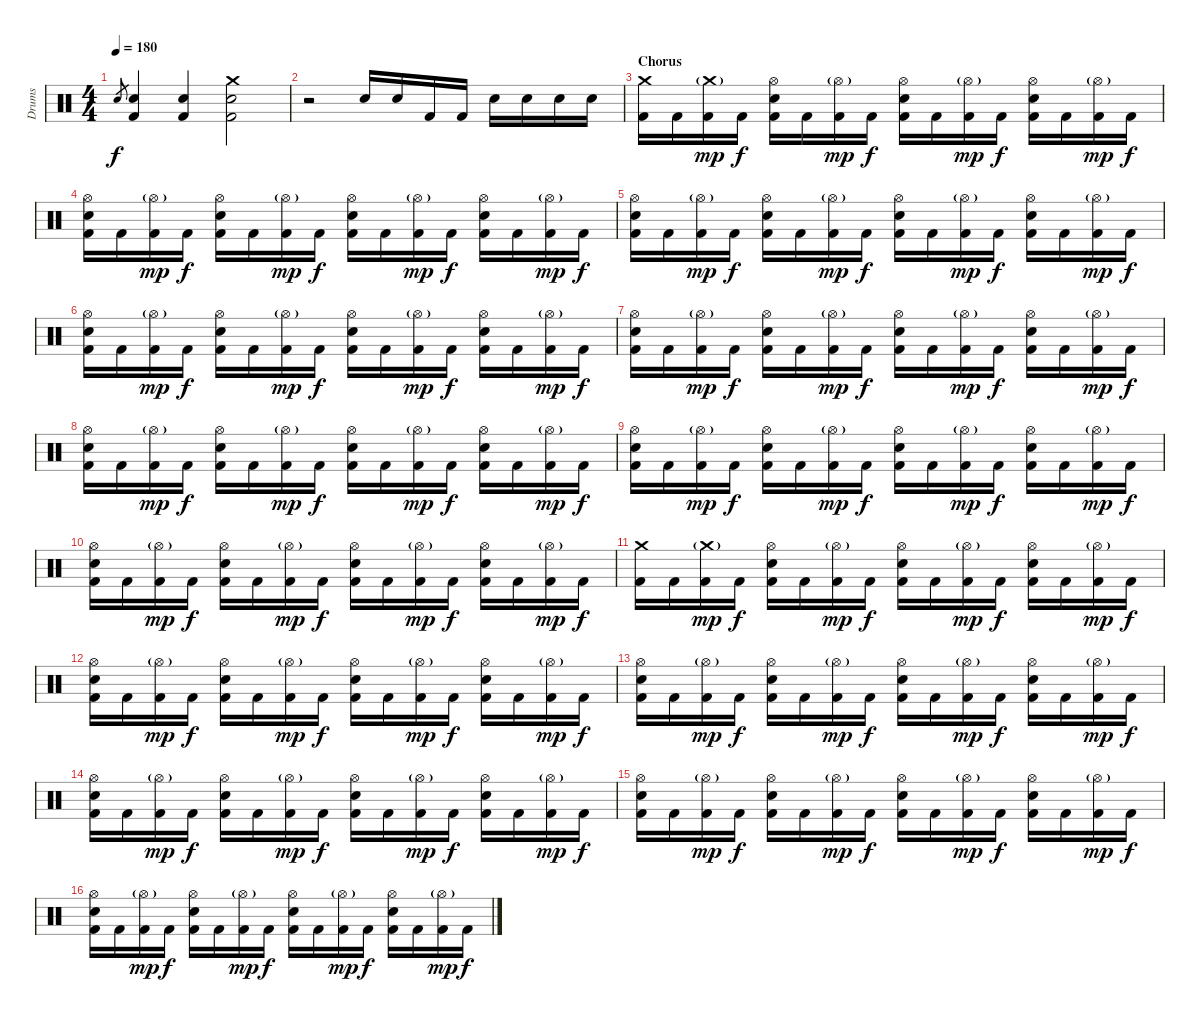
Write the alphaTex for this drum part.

\track ("Drums" "Drums") {instrument percussion}
\staff {score}
\articulation defaults
\ts (4 4)
\tempo 180
\clef neutral
\ks c "Electric Snare (hit)".8{gr dy f}
("Electric Snare (hit)" "Kick (hit) 2").4 ("Electric Snare (hit)" "Kick (hit) 2").4 ("Crash medium (hit)" "Electric Snare (hit)" "Kick (hit) 2").2 |
r.2 "Electric Snare (hit)".16 "Electric Snare (hit)".16 "Kick (hit) 2".16 "Kick (hit) 2".16 "Electric Snare (hit)".16 "Electric Snare (hit)".16 "Electric Snare (hit)".16 "Electric Snare (hit)".16 |
\section ("" "Chorus")
("Crash medium (hit)" "Kick (hit) 2").16 "Kick (hit) 2".16 ("Crash medium (hit)"{g} "Kick (hit) 2").16{dy mp} "Kick (hit) 2".16{dy f} ("Hi-Hat (open)" "Electric Snare (hit)" "Kick (hit) 2").16 "Kick (hit) 2".16 ("Hi-Hat (open)"{g} "Kick (hit) 2").16{dy mp} "Kick (hit) 2".16{dy f} ("Hi-Hat (open)" "Electric Snare (hit)" "Kick (hit) 2").16 "Kick (hit) 2".16 ("Hi-Hat (open)"{g} "Kick (hit) 2").16{dy mp} "Kick (hit) 2".16{dy f} ("Hi-Hat (open)" "Electric Snare (hit)" "Kick (hit) 2").16 "Kick (hit) 2".16 ("Hi-Hat (open)"{g} "Kick (hit) 2").16{dy mp} "Kick (hit) 2".16{dy f} |
("Hi-Hat (open)" "Electric Snare (hit)" "Kick (hit) 2").16 "Kick (hit) 2".16 ("Hi-Hat (open)"{g} "Kick (hit) 2").16{dy mp} "Kick (hit) 2".16{dy f} ("Hi-Hat (open)" "Electric Snare (hit)" "Kick (hit) 2").16 "Kick (hit) 2".16 ("Hi-Hat (open)"{g} "Kick (hit) 2").16{dy mp} "Kick (hit) 2".16{dy f} ("Hi-Hat (open)" "Electric Snare (hit)" "Kick (hit) 2").16 "Kick (hit) 2".16 ("Hi-Hat (open)"{g} "Kick (hit) 2").16{dy mp} "Kick (hit) 2".16{dy f} ("Hi-Hat (open)" "Electric Snare (hit)" "Kick (hit) 2").16 "Kick (hit) 2".16 ("Hi-Hat (open)"{g} "Kick (hit) 2").16{dy mp} "Kick (hit) 2".16{dy f} |
("Hi-Hat (open)" "Electric Snare (hit)" "Kick (hit) 2").16 "Kick (hit) 2".16 ("Hi-Hat (open)"{g} "Kick (hit) 2").16{dy mp} "Kick (hit) 2".16{dy f} ("Hi-Hat (open)" "Electric Snare (hit)" "Kick (hit) 2").16 "Kick (hit) 2".16 ("Hi-Hat (open)"{g} "Kick (hit) 2").16{dy mp} "Kick (hit) 2".16{dy f} ("Hi-Hat (open)" "Electric Snare (hit)" "Kick (hit) 2").16 "Kick (hit) 2".16 ("Hi-Hat (open)"{g} "Kick (hit) 2").16{dy mp} "Kick (hit) 2".16{dy f} ("Hi-Hat (open)" "Electric Snare (hit)" "Kick (hit) 2").16 "Kick (hit) 2".16 ("Hi-Hat (open)"{g} "Kick (hit) 2").16{dy mp} "Kick (hit) 2".16{dy f} |
("Hi-Hat (open)" "Electric Snare (hit)" "Kick (hit) 2").16 "Kick (hit) 2".16 ("Hi-Hat (open)"{g} "Kick (hit) 2").16{dy mp} "Kick (hit) 2".16{dy f} ("Hi-Hat (open)" "Electric Snare (hit)" "Kick (hit) 2").16 "Kick (hit) 2".16 ("Hi-Hat (open)"{g} "Kick (hit) 2").16{dy mp} "Kick (hit) 2".16{dy f} ("Hi-Hat (open)" "Electric Snare (hit)" "Kick (hit) 2").16 "Kick (hit) 2".16 ("Hi-Hat (open)"{g} "Kick (hit) 2").16{dy mp} "Kick (hit) 2".16{dy f} ("Hi-Hat (open)" "Electric Snare (hit)" "Kick (hit) 2").16 "Kick (hit) 2".16 ("Hi-Hat (open)"{g} "Kick (hit) 2").16{dy mp} "Kick (hit) 2".16{dy f} |
("Hi-Hat (open)" "Electric Snare (hit)" "Kick (hit) 2").16 "Kick (hit) 2".16 ("Hi-Hat (open)"{g} "Kick (hit) 2").16{dy mp} "Kick (hit) 2".16{dy f} ("Hi-Hat (open)" "Electric Snare (hit)" "Kick (hit) 2").16 "Kick (hit) 2".16 ("Hi-Hat (open)"{g} "Kick (hit) 2").16{dy mp} "Kick (hit) 2".16{dy f} ("Hi-Hat (open)" "Electric Snare (hit)" "Kick (hit) 2").16 "Kick (hit) 2".16 ("Hi-Hat (open)"{g} "Kick (hit) 2").16{dy mp} "Kick (hit) 2".16{dy f} ("Hi-Hat (open)" "Electric Snare (hit)" "Kick (hit) 2").16 "Kick (hit) 2".16 ("Hi-Hat (open)"{g} "Kick (hit) 2").16{dy mp} "Kick (hit) 2".16{dy f} |
("Hi-Hat (open)" "Electric Snare (hit)" "Kick (hit) 2").16 "Kick (hit) 2".16 ("Hi-Hat (open)"{g} "Kick (hit) 2").16{dy mp} "Kick (hit) 2".16{dy f} ("Hi-Hat (open)" "Electric Snare (hit)" "Kick (hit) 2").16 "Kick (hit) 2".16 ("Hi-Hat (open)"{g} "Kick (hit) 2").16{dy mp} "Kick (hit) 2".16{dy f} ("Hi-Hat (open)" "Electric Snare (hit)" "Kick (hit) 2").16 "Kick (hit) 2".16 ("Hi-Hat (open)"{g} "Kick (hit) 2").16{dy mp} "Kick (hit) 2".16{dy f} ("Hi-Hat (open)" "Electric Snare (hit)" "Kick (hit) 2").16 "Kick (hit) 2".16 ("Hi-Hat (open)"{g} "Kick (hit) 2").16{dy mp} "Kick (hit) 2".16{dy f} |
("Hi-Hat (open)" "Electric Snare (hit)" "Kick (hit) 2").16 "Kick (hit) 2".16 ("Hi-Hat (open)"{g} "Kick (hit) 2").16{dy mp} "Kick (hit) 2".16{dy f} ("Hi-Hat (open)" "Electric Snare (hit)" "Kick (hit) 2").16 "Kick (hit) 2".16 ("Hi-Hat (open)"{g} "Kick (hit) 2").16{dy mp} "Kick (hit) 2".16{dy f} ("Hi-Hat (open)" "Electric Snare (hit)" "Kick (hit) 2").16 "Kick (hit) 2".16 ("Hi-Hat (open)"{g} "Kick (hit) 2").16{dy mp} "Kick (hit) 2".16{dy f} ("Hi-Hat (open)" "Electric Snare (hit)" "Kick (hit) 2").16 "Kick (hit) 2".16 ("Hi-Hat (open)"{g} "Kick (hit) 2").16{dy mp} "Kick (hit) 2".16{dy f} |
("Hi-Hat (open)" "Electric Snare (hit)" "Kick (hit) 2").16 "Kick (hit) 2".16 ("Hi-Hat (open)"{g} "Kick (hit) 2").16{dy mp} "Kick (hit) 2".16{dy f} ("Hi-Hat (open)" "Electric Snare (hit)" "Kick (hit) 2").16 "Kick (hit) 2".16 ("Hi-Hat (open)"{g} "Kick (hit) 2").16{dy mp} "Kick (hit) 2".16{dy f} ("Hi-Hat (open)" "Electric Snare (hit)" "Kick (hit) 2").16 "Kick (hit) 2".16 ("Hi-Hat (open)"{g} "Kick (hit) 2").16{dy mp} "Kick (hit) 2".16{dy f} ("Hi-Hat (open)" "Electric Snare (hit)" "Kick (hit) 2").16 "Kick (hit) 2".16 ("Hi-Hat (open)"{g} "Kick (hit) 2").16{dy mp} "Kick (hit) 2".16{dy f} |
("Crash medium (hit)" "Kick (hit) 2").16 "Kick (hit) 2".16 ("Crash medium (hit)"{g} "Kick (hit) 2").16{dy mp} "Kick (hit) 2".16{dy f} ("Hi-Hat (open)" "Electric Snare (hit)" "Kick (hit) 2").16 "Kick (hit) 2".16 ("Hi-Hat (open)"{g} "Kick (hit) 2").16{dy mp} "Kick (hit) 2".16{dy f} ("Hi-Hat (open)" "Electric Snare (hit)" "Kick (hit) 2").16 "Kick (hit) 2".16 ("Hi-Hat (open)"{g} "Kick (hit) 2").16{dy mp} "Kick (hit) 2".16{dy f} ("Hi-Hat (open)" "Electric Snare (hit)" "Kick (hit) 2").16 "Kick (hit) 2".16 ("Hi-Hat (open)"{g} "Kick (hit) 2").16{dy mp} "Kick (hit) 2".16{dy f} |
("Hi-Hat (open)" "Electric Snare (hit)" "Kick (hit) 2").16 "Kick (hit) 2".16 ("Hi-Hat (open)"{g} "Kick (hit) 2").16{dy mp} "Kick (hit) 2".16{dy f} ("Hi-Hat (open)" "Electric Snare (hit)" "Kick (hit) 2").16 "Kick (hit) 2".16 ("Hi-Hat (open)"{g} "Kick (hit) 2").16{dy mp} "Kick (hit) 2".16{dy f} ("Hi-Hat (open)" "Electric Snare (hit)" "Kick (hit) 2").16 "Kick (hit) 2".16 ("Hi-Hat (open)"{g} "Kick (hit) 2").16{dy mp} "Kick (hit) 2".16{dy f} ("Hi-Hat (open)" "Electric Snare (hit)" "Kick (hit) 2").16 "Kick (hit) 2".16 ("Hi-Hat (open)"{g} "Kick (hit) 2").16{dy mp} "Kick (hit) 2".16{dy f} |
("Hi-Hat (open)" "Electric Snare (hit)" "Kick (hit) 2").16 "Kick (hit) 2".16 ("Hi-Hat (open)"{g} "Kick (hit) 2").16{dy mp} "Kick (hit) 2".16{dy f} ("Hi-Hat (open)" "Electric Snare (hit)" "Kick (hit) 2").16 "Kick (hit) 2".16 ("Hi-Hat (open)"{g} "Kick (hit) 2").16{dy mp} "Kick (hit) 2".16{dy f} ("Hi-Hat (open)" "Electric Snare (hit)" "Kick (hit) 2").16 "Kick (hit) 2".16 ("Hi-Hat (open)"{g} "Kick (hit) 2").16{dy mp} "Kick (hit) 2".16{dy f} ("Hi-Hat (open)" "Electric Snare (hit)" "Kick (hit) 2").16 "Kick (hit) 2".16 ("Hi-Hat (open)"{g} "Kick (hit) 2").16{dy mp} "Kick (hit) 2".16{dy f} |
("Hi-Hat (open)" "Electric Snare (hit)" "Kick (hit) 2").16 "Kick (hit) 2".16 ("Hi-Hat (open)"{g} "Kick (hit) 2").16{dy mp} "Kick (hit) 2".16{dy f} ("Hi-Hat (open)" "Electric Snare (hit)" "Kick (hit) 2").16 "Kick (hit) 2".16 ("Hi-Hat (open)"{g} "Kick (hit) 2").16{dy mp} "Kick (hit) 2".16{dy f} ("Hi-Hat (open)" "Electric Snare (hit)" "Kick (hit) 2").16 "Kick (hit) 2".16 ("Hi-Hat (open)"{g} "Kick (hit) 2").16{dy mp} "Kick (hit) 2".16{dy f} ("Hi-Hat (open)" "Electric Snare (hit)" "Kick (hit) 2").16 "Kick (hit) 2".16 ("Hi-Hat (open)"{g} "Kick (hit) 2").16{dy mp} "Kick (hit) 2".16{dy f} |
("Hi-Hat (open)" "Electric Snare (hit)" "Kick (hit) 2").16 "Kick (hit) 2".16 ("Hi-Hat (open)"{g} "Kick (hit) 2").16{dy mp} "Kick (hit) 2".16{dy f} ("Hi-Hat (open)" "Electric Snare (hit)" "Kick (hit) 2").16 "Kick (hit) 2".16 ("Hi-Hat (open)"{g} "Kick (hit) 2").16{dy mp} "Kick (hit) 2".16{dy f} ("Hi-Hat (open)" "Electric Snare (hit)" "Kick (hit) 2").16 "Kick (hit) 2".16 ("Hi-Hat (open)"{g} "Kick (hit) 2").16{dy mp} "Kick (hit) 2".16{dy f} ("Hi-Hat (open)" "Electric Snare (hit)" "Kick (hit) 2").16 "Kick (hit) 2".16 ("Hi-Hat (open)"{g} "Kick (hit) 2").16{dy mp} "Kick (hit) 2".16{dy f} |
("Hi-Hat (open)" "Electric Snare (hit)" "Kick (hit) 2").16 "Kick (hit) 2".16 ("Hi-Hat (open)"{g} "Kick (hit) 2").16{dy mp} "Kick (hit) 2".16{dy f} ("Hi-Hat (open)" "Electric Snare (hit)" "Kick (hit) 2").16 "Kick (hit) 2".16 ("Hi-Hat (open)"{g} "Kick (hit) 2").16{dy mp} "Kick (hit) 2".16{dy f} ("Hi-Hat (open)" "Electric Snare (hit)" "Kick (hit) 2").16 "Kick (hit) 2".16 ("Hi-Hat (open)"{g} "Kick (hit) 2").16{dy mp} "Kick (hit) 2".16{dy f} ("Hi-Hat (open)" "Electric Snare (hit)" "Kick (hit) 2").16 "Kick (hit) 2".16 ("Hi-Hat (open)"{g} "Kick (hit) 2").16{dy mp} "Kick (hit) 2".16{dy f}
